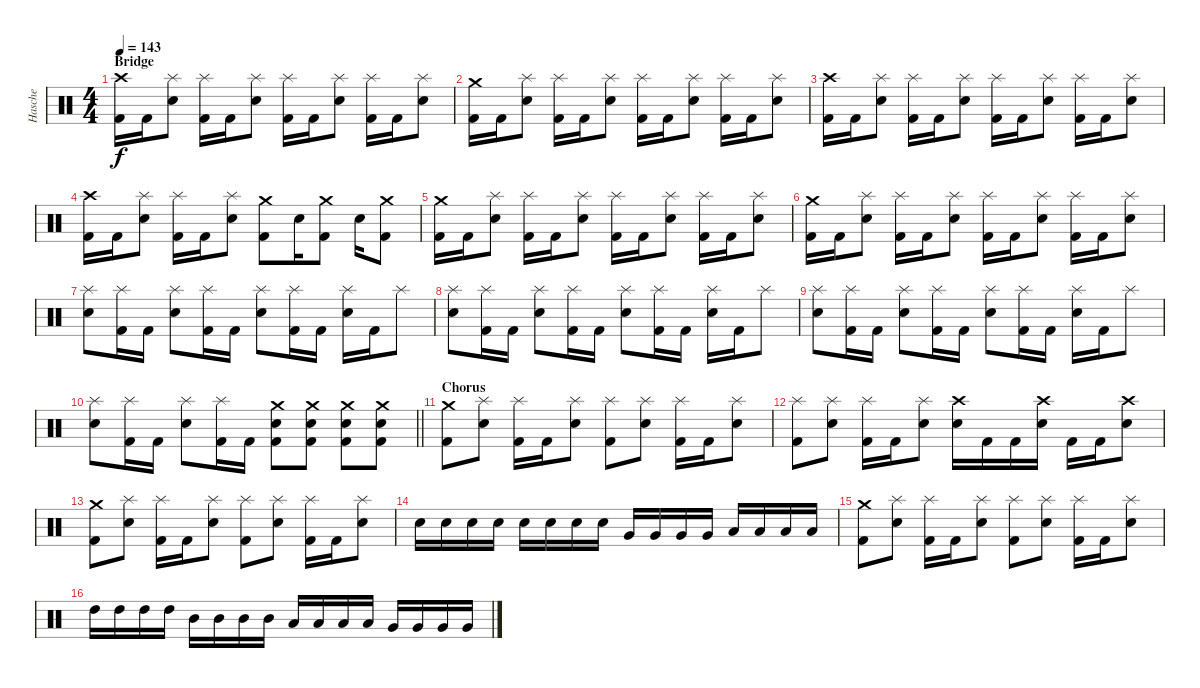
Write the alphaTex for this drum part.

\track ("Hasche" "Hasche") {instrument percussion}
\staff {score}
\articulation defaults
\ts (4 4)
\section ("" "Bridge")
\tempo 143
\clef neutral
\ks c
("Crash high (hit)" "Kick (hit) 2").16{dy f} "Kick (hit) 2".16 ("Splash (hit)" "Snare (hit) 2").8 ("Splash (hit)" "Kick (hit) 2").16 "Kick (hit) 2".16 ("Splash (hit)" "Snare (hit) 2").8 ("Splash (hit)" "Kick (hit) 2").16 "Kick (hit) 2".16 ("Splash (hit)" "Snare (hit) 2").8 ("Splash (hit)" "Kick (hit) 2").16 "Kick (hit) 2".16 ("Splash (hit)" "Snare (hit) 2").8 |
("Crash medium (hit)" "Kick (hit) 2").16 "Kick (hit) 2".16 ("Splash (hit)" "Snare (hit) 2").8 ("Splash (hit)" "Kick (hit) 2").16 "Kick (hit) 2".16 ("Splash (hit)" "Snare (hit) 2").8 ("Splash (hit)" "Kick (hit) 2").16 "Kick (hit) 2".16 ("Splash (hit)" "Snare (hit) 2").8 ("Splash (hit)" "Kick (hit) 2").16 "Kick (hit) 2".16 ("Splash (hit)" "Snare (hit) 2").8 |
("Crash high (hit)" "Kick (hit) 2").16 "Kick (hit) 2".16 ("Splash (hit)" "Snare (hit) 2").8 ("Splash (hit)" "Kick (hit) 2").16 "Kick (hit) 2".16 ("Splash (hit)" "Snare (hit) 2").8 ("Splash (hit)" "Kick (hit) 2").16 "Kick (hit) 2".16 ("Splash (hit)" "Snare (hit) 2").8 ("Splash (hit)" "Kick (hit) 2").16 "Kick (hit) 2".16 ("Splash (hit)" "Snare (hit) 2").8 |
("Crash high (hit)" "Kick (hit) 2").16 "Kick (hit) 2".16 ("Splash (hit)" "Snare (hit) 2").8 ("Splash (hit)" "Kick (hit) 2").16 "Kick (hit) 2".16 ("Splash (hit)" "Snare (hit) 2").8 ("Crash medium (hit)" "Kick (hit) 2").8 "Snare (hit) 2".16 ("Crash medium (hit)" "Kick (hit) 2").8 "Snare (hit) 2".16 ("Crash medium (hit)" "Kick (hit) 2").8 |
("Crash medium (hit)" "Kick (hit) 2").16 "Kick (hit) 2".16 ("Splash (hit)" "Snare (hit) 2").8 ("Splash (hit)" "Kick (hit) 2").16 "Kick (hit) 2".16 ("Splash (hit)" "Snare (hit) 2").8 ("Splash (hit)" "Kick (hit) 2").16 "Kick (hit) 2".16 ("Splash (hit)" "Snare (hit) 2").8 ("Splash (hit)" "Kick (hit) 2").16 "Kick (hit) 2".16 ("Splash (hit)" "Snare (hit) 2").8 |
("Crash medium (hit)" "Kick (hit) 2").16 "Kick (hit) 2".16 ("Splash (hit)" "Snare (hit) 2").8 ("Splash (hit)" "Kick (hit) 2").16 "Kick (hit) 2".16 ("Splash (hit)" "Snare (hit) 2").8 ("Splash (hit)" "Kick (hit) 2").16 "Kick (hit) 2".16 ("Splash (hit)" "Snare (hit) 2").8 ("Splash (hit)" "Kick (hit) 2").16 "Kick (hit) 2".16 ("Splash (hit)" "Snare (hit) 2").8 |
("Splash (hit)" "Snare (hit) 2").8 ("Splash (hit)" "Kick (hit) 2").16 "Kick (hit) 2".16 ("Splash (hit)" "Snare (hit) 2").8 ("Splash (hit)" "Kick (hit) 2").16 "Kick (hit) 2".16 ("Splash (hit)" "Snare (hit) 2").8 ("Splash (hit)" "Kick (hit) 2").16 "Kick (hit) 2".16 ("Splash (hit)" "Snare (hit) 2").16 "Kick (hit) 2".16 "Splash (hit)".8 |
("Splash (hit)" "Snare (hit) 2").8 ("Splash (hit)" "Kick (hit) 2").16 "Kick (hit) 2".16 ("Splash (hit)" "Snare (hit) 2").8 ("Splash (hit)" "Kick (hit) 2").16 "Kick (hit) 2".16 ("Splash (hit)" "Snare (hit) 2").8 ("Splash (hit)" "Kick (hit) 2").16 "Kick (hit) 2".16 ("Splash (hit)" "Snare (hit) 2").16 "Kick (hit) 2".16 "Splash (hit)".8 |
("Splash (hit)" "Snare (hit) 2").8 ("Splash (hit)" "Kick (hit) 2").16 "Kick (hit) 2".16 ("Splash (hit)" "Snare (hit) 2").8 ("Splash (hit)" "Kick (hit) 2").16 "Kick (hit) 2".16 ("Splash (hit)" "Snare (hit) 2").8 ("Splash (hit)" "Kick (hit) 2").16 "Kick (hit) 2".16 ("Splash (hit)" "Snare (hit) 2").16 "Kick (hit) 2".16 "Splash (hit)".8 |
\barLineRight lightlight
("Splash (hit)" "Snare (hit) 2").8 ("Splash (hit)" "Kick (hit) 2").16 "Kick (hit) 2".16 ("Splash (hit)" "Snare (hit) 2").8 ("Splash (hit)" "Kick (hit) 2").16 "Kick (hit) 2".16 ("Crash medium (hit)" "Snare (hit) 2" "Kick (hit) 2").8 ("Crash medium (hit)" "Snare (hit) 2" "Kick (hit) 2").8 ("Crash medium (hit)" "Snare (hit) 2" "Kick (hit) 2").8 ("Crash medium (hit)" "Snare (hit) 2" "Kick (hit) 2").8 |
\section ("" "Chorus")
("Crash medium (hit)" "Kick (hit) 2").8 ("Splash (hit)" "Snare (hit) 2").8 ("Splash (hit)" "Kick (hit) 2").16 "Kick (hit) 2".16 ("Splash (hit)" "Snare (hit) 2").8 ("Splash (hit)" "Kick (hit) 2").8 ("Splash (hit)" "Snare (hit) 2").8 ("Splash (hit)" "Kick (hit) 2").16 "Kick (hit) 2".16 ("Splash (hit)" "Snare (hit) 2").8 |
("Splash (hit)" "Kick (hit) 2").8 ("Splash (hit)" "Snare (hit) 2").8 ("Splash (hit)" "Kick (hit) 2").16 "Kick (hit) 2".16 ("Splash (hit)" "Snare (hit) 2").8 ("Crash high (hit)" "Snare (hit) 2").16 "Kick (hit) 2".16 "Kick (hit) 2".16 ("Crash high (hit)" "Snare (hit) 2").16 "Kick (hit) 2".16 "Kick (hit) 2".16 ("Crash high (hit)" "Snare (hit) 2").8 |
("Crash medium (hit)" "Kick (hit) 2").8 ("Splash (hit)" "Snare (hit) 2").8 ("Splash (hit)" "Kick (hit) 2").16 "Kick (hit) 2".16 ("Splash (hit)" "Snare (hit) 2").8 ("Splash (hit)" "Kick (hit) 2").8 ("Splash (hit)" "Snare (hit) 2").8 ("Splash (hit)" "Kick (hit) 2").16 "Kick (hit) 2".16 ("Splash (hit)" "Snare (hit) 2").8 |
"Snare (hit) 2".16 "Snare (hit) 2".16 "Snare (hit) 2".16 "Snare (hit) 2".16 "Snare (hit) 2".16 "Snare (hit) 2".16 "Snare (hit) 2".16 "Snare (hit) 2".16 "Very Low Tom (hit)".16 "Very Low Tom (hit)".16 "Very Low Tom (hit)".16 "Very Low Tom (hit)".16 "Low Floor Tom (hit)".16 "Low Floor Tom (hit)".16 "Low Floor Tom (hit)".16 "Low Floor Tom (hit)".16 |
("Crash medium (hit)" "Kick (hit) 2").8 ("Splash (hit)" "Snare (hit) 2").8 ("Splash (hit)" "Kick (hit) 2").16 "Kick (hit) 2".16 ("Splash (hit)" "Snare (hit) 2").8 ("Splash (hit)" "Kick (hit) 2").8 ("Splash (hit)" "Snare (hit) 2").8 ("Splash (hit)" "Kick (hit) 2").16 "Kick (hit) 2".16 ("Splash (hit)" "Snare (hit) 2").8 |
"High Tom (hit)".16 "High Tom (hit)".16 "High Tom (hit)".16 "High Tom (hit)".16 "Mid Tom (hit)".16 "Mid Tom (hit)".16 "Mid Tom (hit)".16 "Mid Tom (hit)".16 "Low Tom (hit)".16 "Low Tom (hit)".16 "Low Tom (hit)".16 "Low Tom (hit)".16 "Very Low Tom (hit)".16 "Very Low Tom (hit)".16 "Very Low Tom (hit)".16 "Very Low Tom (hit)".16
